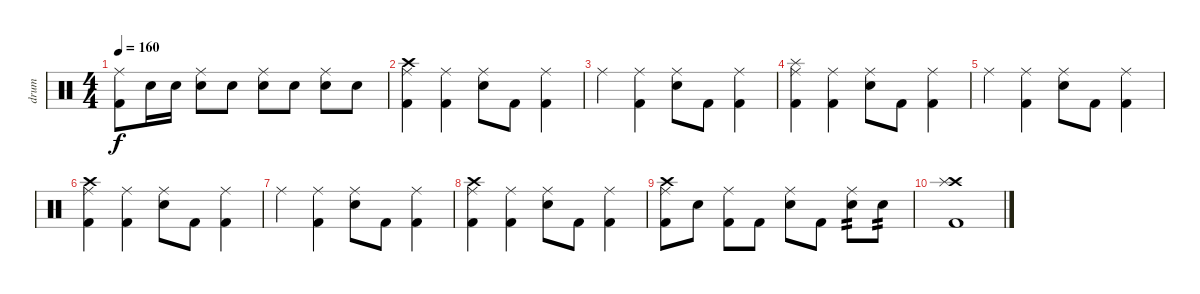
\track ("drum" "drum") {instrument percussion}
\staff {score}
\articulation defaults
\ts (4 4)
\tempo 160
\clef neutral
\ks c
("Ride (middle)" "Kick (hit) 2").8{dy f} "Electric Snare (hit)".16 "Electric Snare (hit)".16 ("Ride (middle)" "Electric Snare (hit)").8 "Electric Snare (hit)".8 ("Ride (middle)" "Electric Snare (hit)").8 "Electric Snare (hit)".8 ("Ride (middle)" "Electric Snare (hit)").8 "Electric Snare (hit)".8 |
("Crash high (hit)" "Ride (middle)" "Kick (hit) 2").4 ("Ride (middle)" "Kick (hit) 2").4 ("Ride (middle)" "Electric Snare (hit)").8 "Kick (hit) 2".8 ("Ride (middle)" "Kick (hit) 2").4 |
"Ride (middle)".4 ("Ride (middle)" "Kick (hit) 2").4 ("Ride (middle)" "Electric Snare (hit)").8 "Kick (hit) 2".8 ("Ride (middle)" "Kick (hit) 2").4 |
("Splash (hit)" "Ride (middle)" "Kick (hit) 2").4 ("Ride (middle)" "Kick (hit) 2").4 ("Ride (middle)" "Electric Snare (hit)").8 "Kick (hit) 2".8 ("Ride (middle)" "Kick (hit) 2").4 |
"Ride (middle)".4 ("Ride (middle)" "Kick (hit) 2").4 ("Ride (middle)" "Electric Snare (hit)").8 "Kick (hit) 2".8 ("Ride (middle)" "Kick (hit) 2").4 |
("Crash high (hit)" "Ride (middle)" "Kick (hit) 2").4 ("Ride (middle)" "Kick (hit) 2").4 ("Ride (middle)" "Electric Snare (hit)").8 "Kick (hit) 2".8 ("Ride (middle)" "Kick (hit) 2").4 |
"Ride (middle)".4 ("Ride (middle)" "Kick (hit) 2").4 ("Ride (middle)" "Electric Snare (hit)").8 "Kick (hit) 2".8 ("Ride (middle)" "Kick (hit) 2").4 |
("Crash high (hit)" "Ride (middle)" "Kick (hit) 2").4 ("Ride (middle)" "Kick (hit) 2").4 ("Ride (middle)" "Electric Snare (hit)").8 "Kick (hit) 2".8 ("Ride (middle)" "Kick (hit) 2").4 |
("Crash high (hit)" "Ride (middle)" "Kick (hit) 2").8 "Electric Snare (hit)".8 ("Ride (middle)" "Kick (hit) 2").8 "Kick (hit) 2".8 ("Ride (middle)" "Electric Snare (hit)").8 "Kick (hit) 2".8 ("Ride (middle)" "Electric Snare (hit)").8{tp 2} "Electric Snare (hit)".8{tp 2} |
("Crash high (hit)" "Splash (hit)" "Kick (hit) 2").1
